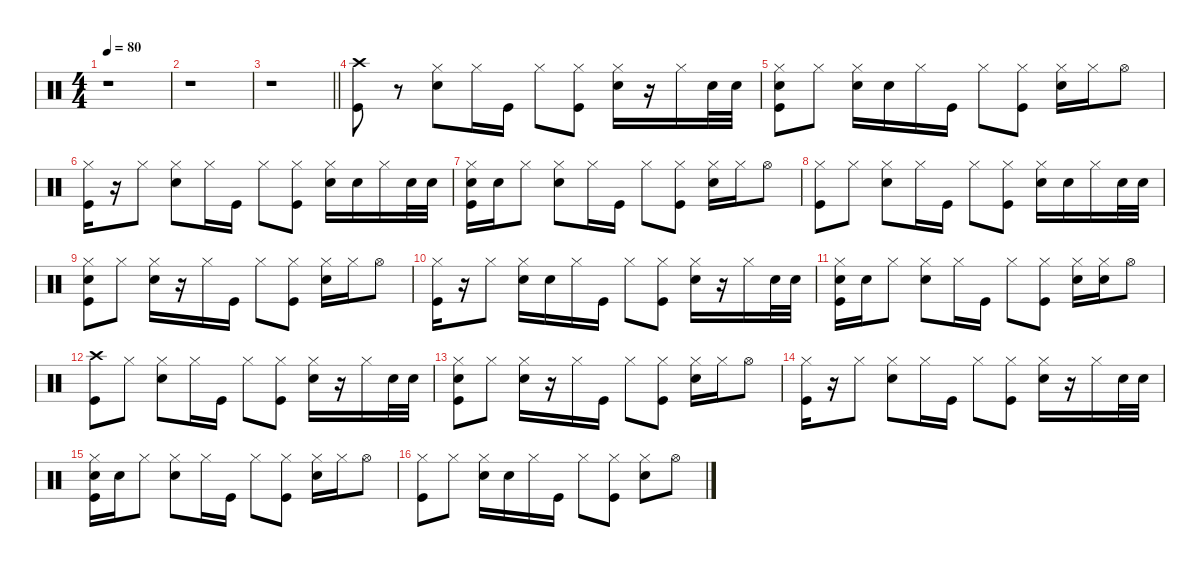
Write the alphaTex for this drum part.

\defaultSystemsLayout 8
\hideDynamics
\bracketExtendMode groupsimilarinstruments
\singleTrackTrackNamePolicy hidden
\multiTrackTrackNamePolicy hidden
\firstSystemTrackNameMode fullname
\firstSystemTrackNameOrientation horizontal
\otherSystemsTrackNameOrientation horizontal
\track ("Percussion" "drm.") {defaultSystemsLayout 4 instrument percussion}
\staff {score}
\articulation defaults
\ts (4 4)
\tempo 80
\clef neutral
\ks c
r.1{dy f} |
r.1 |
\barLineRight lightlight
r.1 |
("Crash high (hit)" "Kick (hit)").8 r.8 ("Hi-Hat (closed)" "Snare (hit) 2").8 "Hi-Hat (closed)".16 "Kick (hit)".16 "Hi-Hat (closed)".8 ("Hi-Hat (closed)" "Kick (hit)").8 ("Hi-Hat (closed)" "Snare (hit) 2").16 r.16 "Hi-Hat (closed)".16 "Snare (hit) 2".32{dy p} "Snare (hit) 2".32 |
("Hi-Hat (closed)" "Snare (hit) 2" "Kick (hit)").8{dy f} "Hi-Hat (closed)".8 ("Hi-Hat (closed)" "Snare (hit) 2").16 "Snare (hit) 2".16{dy pp} "Hi-Hat (closed)".16{dy f} "Kick (hit)".16 "Hi-Hat (closed)".8 ("Hi-Hat (closed)" "Kick (hit)").8 ("Hi-Hat (closed)" "Snare (hit) 2").16 "Hi-Hat (closed)".16{dy mp} "Hi-Hat (open)".8{dy f} |
("Hi-Hat (closed)" "Kick (hit)").16 r.16 "Hi-Hat (closed)".8 ("Hi-Hat (closed)" "Snare (hit) 2").8 "Hi-Hat (closed)".16 "Kick (hit)".16 "Hi-Hat (closed)".8 ("Hi-Hat (closed)" "Kick (hit)").8 ("Hi-Hat (closed)" "Snare (hit) 2").16 "Snare (hit) 2".16{dy pp} "Hi-Hat (closed)".16{dy f} "Snare (hit) 2".32{dy p} "Snare (hit) 2".32 |
("Hi-Hat (closed)" "Snare (hit) 2" "Kick (hit)").16{dy f} "Snare (hit) 2".16{dy pp} "Hi-Hat (closed)".8{dy f} ("Hi-Hat (closed)" "Snare (hit) 2").8 "Hi-Hat (closed)".16 "Kick (hit)".16 "Hi-Hat (closed)".8 ("Hi-Hat (closed)" "Kick (hit)").8 ("Hi-Hat (closed)" "Snare (hit) 2").16 "Hi-Hat (closed)".16{dy mp} "Hi-Hat (open)".8{dy f} |
("Hi-Hat (closed)" "Kick (hit)").8 "Hi-Hat (closed)".8{dy mp} ("Hi-Hat (closed)" "Snare (hit) 2").8{dy f} "Hi-Hat (closed)".16 "Kick (hit)".16 "Hi-Hat (closed)".8 ("Hi-Hat (closed)" "Kick (hit)").8 ("Hi-Hat (closed)" "Snare (hit) 2").16 "Snare (hit) 2".16{dy p} "Hi-Hat (closed)".16{dy f} "Snare (hit) 2".32{dy p} "Snare (hit) 2".32 |
("Hi-Hat (closed)" "Snare (hit) 2" "Kick (hit)").8{dy f} "Hi-Hat (closed)".8 ("Hi-Hat (closed)" "Snare (hit) 2").16 r.16 "Hi-Hat (closed)".16 "Kick (hit)".16 "Hi-Hat (closed)".8 ("Hi-Hat (closed)" "Kick (hit)").8 ("Hi-Hat (closed)" "Snare (hit) 2").16 "Hi-Hat (closed)".16{dy mp} "Hi-Hat (open)".8{dy f} |
("Hi-Hat (closed)" "Kick (hit)").16 r.16 "Hi-Hat (closed)".8 ("Hi-Hat (closed)" "Snare (hit) 2").16 "Snare (hit) 2".16{dy p} "Hi-Hat (closed)".16{dy f} "Kick (hit)".16 "Hi-Hat (closed)".8 ("Hi-Hat (closed)" "Kick (hit)").8 ("Hi-Hat (closed)" "Snare (hit) 2").16 r.16 "Hi-Hat (closed)".16 "Snare (hit) 2".32{dy p} "Snare (hit) 2".32 |
("Hi-Hat (closed)" "Snare (hit) 2" "Kick (hit)").16{dy f} "Snare (hit) 2".16{dy pp} "Hi-Hat (closed)".8{dy f} ("Hi-Hat (closed)" "Snare (hit) 2").8 "Hi-Hat (closed)".16 "Kick (hit)".16 "Hi-Hat (closed)".8 ("Hi-Hat (closed)" "Kick (hit)").8 ("Hi-Hat (closed)" "Snare (hit) 2").16 ("Hi-Hat (closed)" "Snare (hit) 2").16{dy mp} "Hi-Hat (open)".8{dy f} |
("Crash high (hit)" "Kick (hit)").8 "Hi-Hat (closed)".8{dy mp} ("Hi-Hat (closed)" "Snare (hit) 2").8{dy f} "Hi-Hat (closed)".16 "Kick (hit)".16 "Hi-Hat (closed)".8 ("Hi-Hat (closed)" "Kick (hit)").8 ("Hi-Hat (closed)" "Snare (hit) 2").16 r.16 "Hi-Hat (closed)".16 "Snare (hit) 2".32{dy p} "Snare (hit) 2".32 |
("Hi-Hat (closed)" "Snare (hit) 2" "Kick (hit)").8{dy f} "Hi-Hat (closed)".8 ("Hi-Hat (closed)" "Snare (hit) 2").16 r.16 "Hi-Hat (closed)".16 "Kick (hit)".16 "Hi-Hat (closed)".8 ("Hi-Hat (closed)" "Kick (hit)").8 ("Hi-Hat (closed)" "Snare (hit) 2").16 "Hi-Hat (closed)".16{dy mp} "Hi-Hat (open)".8{dy f} |
("Hi-Hat (closed)" "Kick (hit)").16 r.16 "Hi-Hat (closed)".8 ("Hi-Hat (closed)" "Snare (hit) 2").8 "Hi-Hat (closed)".16 "Kick (hit)".16 "Hi-Hat (closed)".8 ("Hi-Hat (closed)" "Kick (hit)").8 ("Hi-Hat (closed)" "Snare (hit) 2").16 r.16 "Hi-Hat (closed)".16 "Snare (hit) 2".32{dy p} "Snare (hit) 2".32 |
("Hi-Hat (closed)" "Snare (hit) 2" "Kick (hit)").16{dy f} "Snare (hit) 2".16{dy pp} "Hi-Hat (closed)".8{dy f} ("Hi-Hat (closed)" "Snare (hit) 2").8 "Hi-Hat (closed)".16 "Kick (hit)".16 "Hi-Hat (closed)".8 ("Hi-Hat (closed)" "Kick (hit)").8 ("Hi-Hat (closed)" "Snare (hit) 2").16 "Hi-Hat (closed)".16{dy mp} "Hi-Hat (open)".8{dy f} |
("Hi-Hat (closed)" "Kick (hit)").8 "Hi-Hat (closed)".8 ("Hi-Hat (closed)" "Snare (hit) 2").16 "Snare (hit) 2".16{dy p} "Hi-Hat (closed)".16{dy f} "Kick (hit)".16 "Hi-Hat (closed)".8 ("Hi-Hat (closed)" "Kick (hit)").8 ("Hi-Hat (closed)" "Snare (hit) 2").8 "Hi-Hat (open)".8
